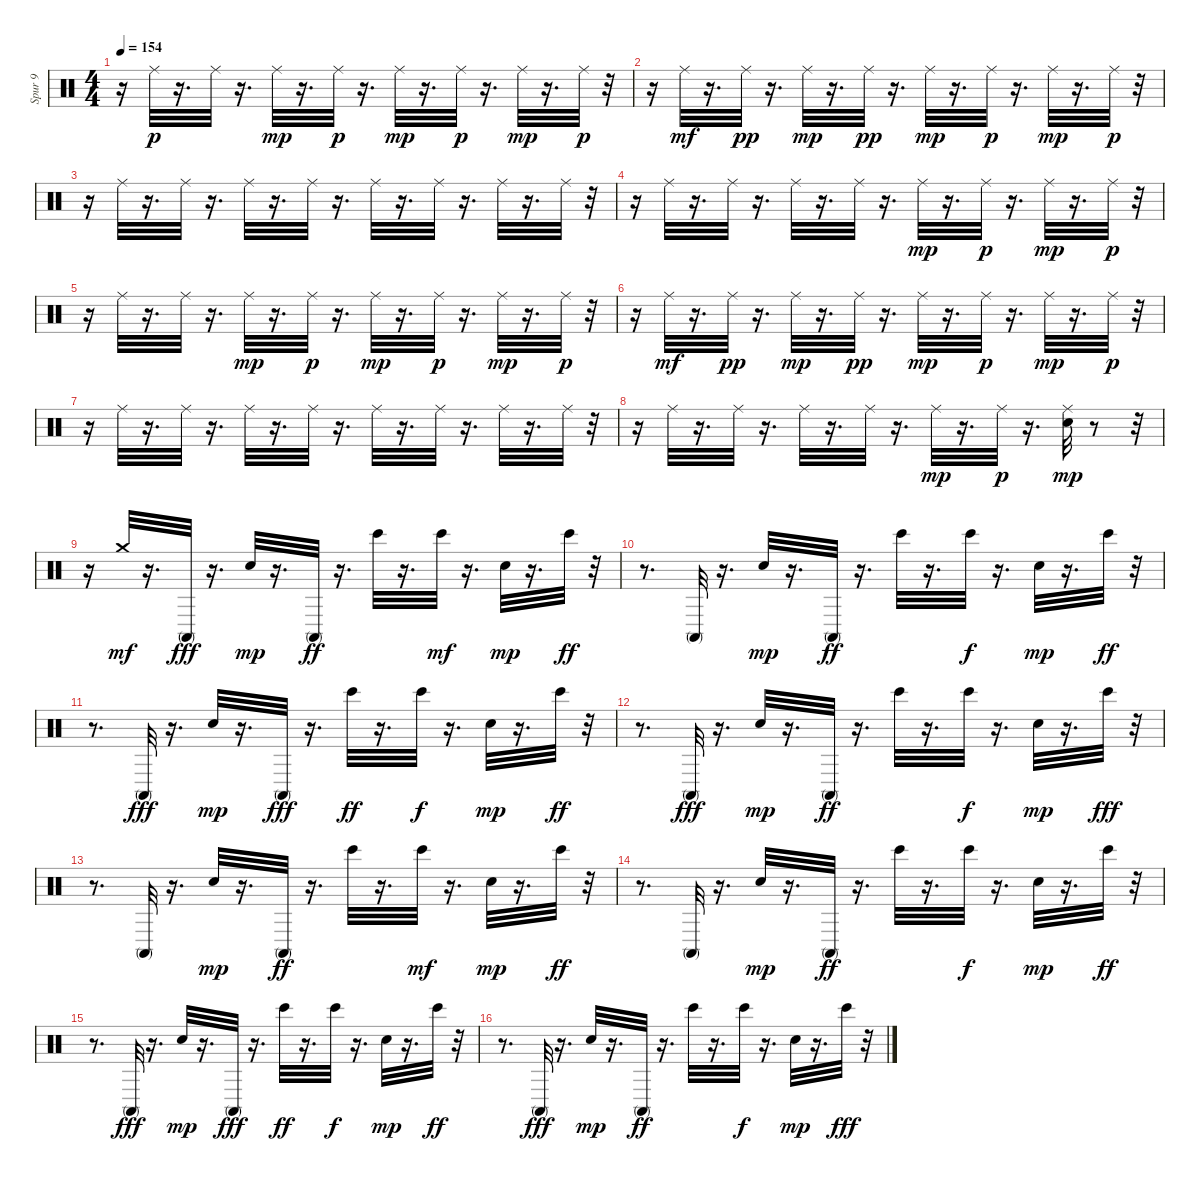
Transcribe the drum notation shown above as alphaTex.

\track ("Spur 9" "Spur 9") {instrument percussion}
\staff {score}
\articulation defaults
\ts (4 4)
\tempo 154
\clef neutral
\ks c
r.16{dy p} "Ride (middle)".32 r.16{d} "Ride (middle)".32 r.16{d} "Ride (middle)".32{dy mp} r.16{d} "Ride (middle)".32{dy p} r.16{d} "Ride (middle)".32{dy mp} r.16{d} "Ride (middle)".32{dy p} r.16{d} "Ride (middle)".32{dy mp} r.16{d} "Ride (middle)".32{dy p} r.32 |
r.16 "Ride (middle)".32{dy mf} r.16{d} "Ride (middle)".32{dy pp} r.16{d} "Ride (middle)".32{dy mp} r.16{d} "Ride (middle)".32{dy pp} r.16{d} "Ride (middle)".32{dy mp} r.16{d} "Ride (middle)".32{dy p} r.16{d} "Ride (middle)".32{dy mp} r.16{d} "Ride (middle)".32{dy p} r.32 |
r.16 "Ride (middle)".32 r.16{d} "Ride (middle)".32 r.16{d} "Ride (middle)".32 r.16{d} "Ride (middle)".32 r.16{d} "Ride (middle)".32 r.16{d} "Ride (middle)".32 r.16{d} "Ride (middle)".32 r.16{d} "Ride (middle)".32 r.32 |
r.16 "Ride (middle)".32 r.16{d} "Ride (middle)".32 r.16{d} "Ride (middle)".32 r.16{d} "Ride (middle)".32 r.16{d} "Ride (middle)".32{dy mp} r.16{d} "Ride (middle)".32{dy p} r.16{d} "Ride (middle)".32{dy mp} r.16{d} "Ride (middle)".32{dy p} r.32 |
r.16 "Ride (middle)".32 r.16{d} "Ride (middle)".32 r.16{d} "Ride (middle)".32{dy mp} r.16{d} "Ride (middle)".32{dy p} r.16{d} "Ride (middle)".32{dy mp} r.16{d} "Ride (middle)".32{dy p} r.16{d} "Ride (middle)".32{dy mp} r.16{d} "Ride (middle)".32{dy p} r.32 |
r.16 "Ride (middle)".32{dy mf} r.16{d} "Ride (middle)".32{dy pp} r.16{d} "Ride (middle)".32{dy mp} r.16{d} "Ride (middle)".32{dy pp} r.16{d} "Ride (middle)".32{dy mp} r.16{d} "Ride (middle)".32{dy p} r.16{d} "Ride (middle)".32{dy mp} r.16{d} "Ride (middle)".32{dy p} r.32 |
r.16 "Ride (middle)".32 r.16{d} "Ride (middle)".32 r.16{d} "Ride (middle)".32 r.16{d} "Ride (middle)".32 r.16{d} "Ride (middle)".32 r.16{d} "Ride (middle)".32 r.16{d} "Ride (middle)".32 r.16{d} "Ride (middle)".32 r.32 |
r.16 "Ride (middle)".32 r.16{d} "Ride (middle)".32 r.16{d} "Ride (middle)".32 r.16{d} "Ride (middle)".32 r.16{d} "Ride (middle)".32{dy mp} r.16{d} "Ride (middle)".32{dy p} r.16{d} ("Ride (middle)" "Hand Clap (hit)").32{dy mp} r.8 r.32 |
r.16 "Crash medium (hit)".32{dy mf} r.16{d} "Conga high (mute)".32{dy fff} r.16{d} "Hand Clap (hit)".32{dy mp} r.16{d} "Conga high (mute)".32{dy ff} r.16{d} "Bongo High (hit)".32 r.16{d} "Bongo High (hit)".32{dy mf} r.16{d} "Hand Clap (hit)".32{dy mp} r.16{d} "Bongo High (hit)".32{dy ff} r.32 |
r.8{d} "Conga high (mute)".32 r.16{d} "Hand Clap (hit)".32{dy mp} r.16{d} "Conga high (mute)".32{dy ff} r.16{d} "Bongo High (hit)".32 r.16{d} "Bongo High (hit)".32{dy f} r.16{d} "Hand Clap (hit)".32{dy mp} r.16{d} "Bongo High (hit)".32{dy ff} r.32 |
r.8{d} "Conga high (mute)".32{dy fff} r.16{d} "Hand Clap (hit)".32{dy mp} r.16{d} "Conga high (mute)".32{dy fff} r.16{d} "Bongo High (hit)".32{dy ff} r.16{d} "Bongo High (hit)".32{dy f} r.16{d} "Hand Clap (hit)".32{dy mp} r.16{d} "Bongo High (hit)".32{dy ff} r.32 |
r.8{d} "Conga high (mute)".32{dy fff} r.16{d} "Hand Clap (hit)".32{dy mp} r.16{d} "Conga high (mute)".32{dy ff} r.16{d} "Bongo High (hit)".32 r.16{d} "Bongo High (hit)".32{dy f} r.16{d} "Hand Clap (hit)".32{dy mp} r.16{d} "Bongo High (hit)".32{dy fff} r.32 |
r.8{d} "Conga high (mute)".32 r.16{d} "Hand Clap (hit)".32{dy mp} r.16{d} "Conga high (mute)".32{dy ff} r.16{d} "Bongo High (hit)".32 r.16{d} "Bongo High (hit)".32{dy mf} r.16{d} "Hand Clap (hit)".32{dy mp} r.16{d} "Bongo High (hit)".32{dy ff} r.32 |
r.8{d} "Conga high (mute)".32 r.16{d} "Hand Clap (hit)".32{dy mp} r.16{d} "Conga high (mute)".32{dy ff} r.16{d} "Bongo High (hit)".32 r.16{d} "Bongo High (hit)".32{dy f} r.16{d} "Hand Clap (hit)".32{dy mp} r.16{d} "Bongo High (hit)".32{dy ff} r.32 |
r.8{d} "Conga high (mute)".32{dy fff} r.16{d} "Hand Clap (hit)".32{dy mp} r.16{d} "Conga high (mute)".32{dy fff} r.16{d} "Bongo High (hit)".32{dy ff} r.16{d} "Bongo High (hit)".32{dy f} r.16{d} "Hand Clap (hit)".32{dy mp} r.16{d} "Bongo High (hit)".32{dy ff} r.32 |
r.8{d} "Conga high (mute)".32{dy fff} r.16{d} "Hand Clap (hit)".32{dy mp} r.16{d} "Conga high (mute)".32{dy ff} r.16{d} "Bongo High (hit)".32 r.16{d} "Bongo High (hit)".32{dy f} r.16{d} "Hand Clap (hit)".32{dy mp} r.16{d} "Bongo High (hit)".32{dy fff} r.32
